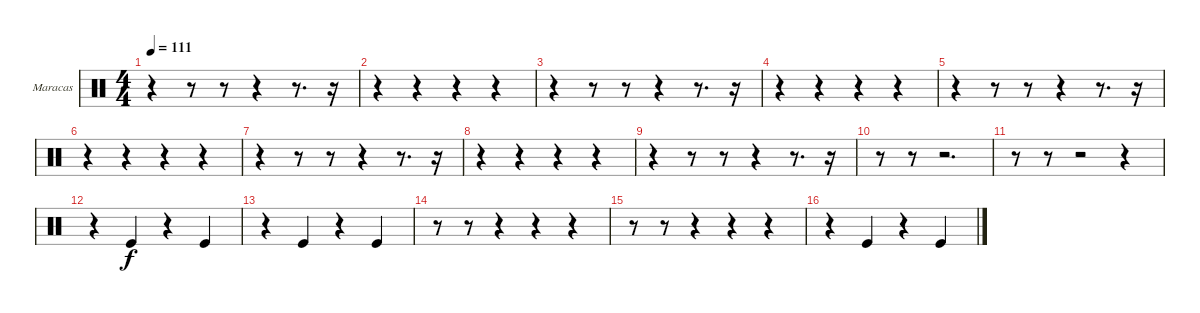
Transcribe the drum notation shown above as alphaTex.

\bracketExtendMode groupsimilarinstruments
\firstSystemTrackNameOrientation horizontal
\otherSystemsTrackNameOrientation horizontal
\track ("Maracas" "Maracas") {instrument percussion}
\staff {score}
\articulation defaults
\ts (4 4)
\tempo 111
\clef neutral
\ks c
r.4{dy f} r.8 r.8 r.4 r.8{d} r.16 |
r.4 r.4 r.4 r.4 |
r.4 r.8 r.8 r.4 r.8{d} r.16 |
r.4 r.4 r.4 r.4 |
r.4 r.8 r.8 r.4 r.8{d} r.16 |
r.4 r.4 r.4 r.4 |
r.4 r.8 r.8 r.4 r.8{d} r.16 |
r.4 r.4 r.4 r.4 |
r.4 r.8 r.8 r.4 r.8{d} r.16 |
r.8 r.8 r.2{d} |
r.8 r.8 r.2 r.4 |
r.4 "Kick (hit)".4 r.4 "Kick (hit)".4 |
r.4 "Kick (hit)".4 r.4 "Kick (hit)".4 |
r.8 r.8 r.4 r.4 r.4 |
r.8 r.8 r.4 r.4 r.4 |
r.4 "Kick (hit)".4 r.4 "Kick (hit)".4
